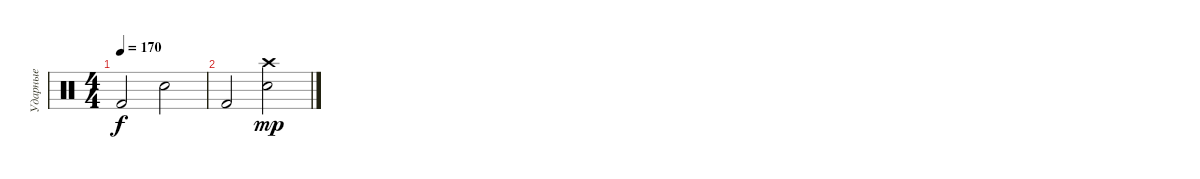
\track ("Ударные" "Ударные") {instrument percussion}
\staff {score}
\articulation defaults
\ts (4 4)
\tempo 170
\clef neutral
\ks c "Kick (hit) 2".2{dy f} "Electric Snare (hit)".2
|
"Kick (hit) 2".2 ("Electric Snare (hit)" "Crash high (hit)").2{dy mp}
